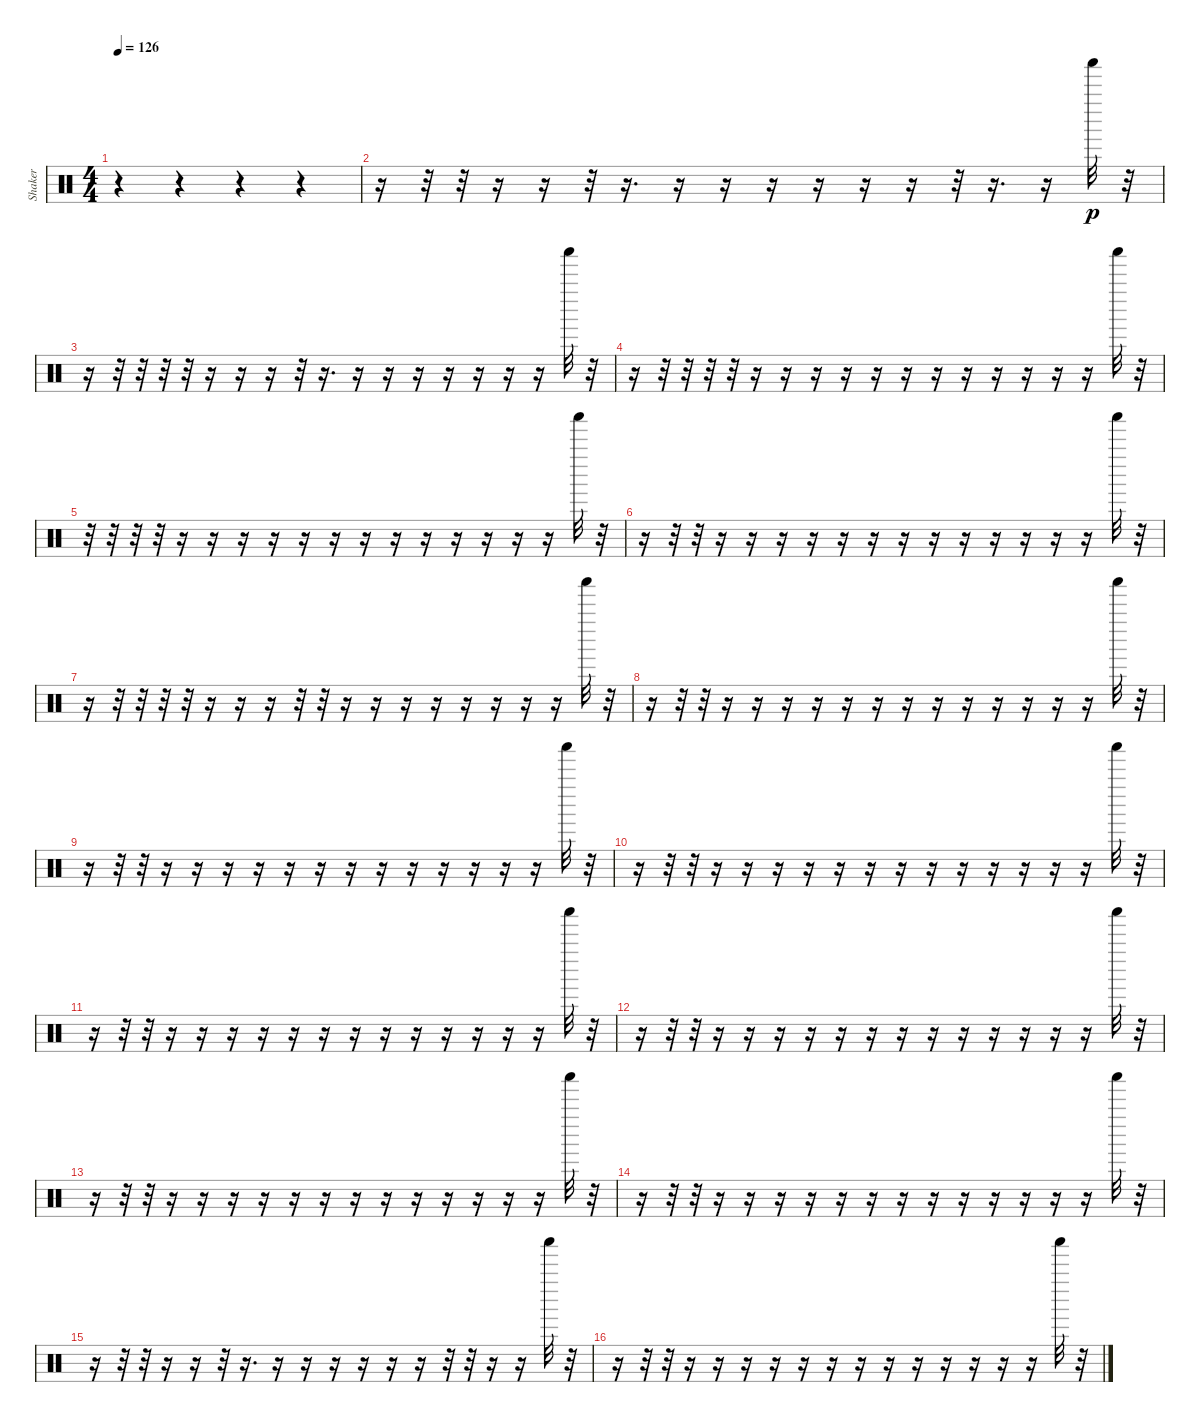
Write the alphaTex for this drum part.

\track ("Shaker" "Shaker") {instrument percussion}
\staff {score}
\articulation defaults
\ts (4 4)
\tempo 126
\clef neutral
\ks c
r.4{dy p} r.4 r.4 r.4 |
r.16 r.32 r.32 r.16 r.16 r.32 r.16{d} r.16 r.16 r.16 r.16 r.16 r.16 r.32 r.16{d} r.16 "Shaker (hit)".32 r.32 |
r.16 r.32 r.32 r.32 r.32 r.16 r.16 r.16 r.32 r.16{d} r.16 r.16 r.16 r.16 r.16 r.16 r.16 "Shaker (hit)".32 r.32 |
r.16 r.32 r.32 r.32 r.32 r.16 r.16 r.16 r.16 r.16 r.16 r.16 r.16 r.16 r.16 r.16 r.16 "Shaker (hit)".32 r.32 |
r.32 r.32 r.32 r.32 r.16 r.16 r.16 r.16 r.16 r.16 r.16 r.16 r.16 r.16 r.16 r.16 r.16 "Shaker (hit)".32 r.32 |
r.16 r.32 r.32 r.16 r.16 r.16 r.16 r.16 r.16 r.16 r.16 r.16 r.16 r.16 r.16 r.16 "Shaker (hit)".32 r.32 |
r.16 r.32 r.32 r.32 r.32 r.16 r.16 r.16 r.32 r.32 r.16 r.16 r.16 r.16 r.16 r.16 r.16 r.16 "Shaker (hit)".32 r.32 |
r.16 r.32 r.32 r.16 r.16 r.16 r.16 r.16 r.16 r.16 r.16 r.16 r.16 r.16 r.16 r.16 "Shaker (hit)".32 r.32 |
r.16 r.32 r.32 r.16 r.16 r.16 r.16 r.16 r.16 r.16 r.16 r.16 r.16 r.16 r.16 r.16 "Shaker (hit)".32 r.32 |
r.16 r.32 r.32 r.16 r.16 r.16 r.16 r.16 r.16 r.16 r.16 r.16 r.16 r.16 r.16 r.16 "Shaker (hit)".32 r.32 |
r.16 r.32 r.32 r.16 r.16 r.16 r.16 r.16 r.16 r.16 r.16 r.16 r.16 r.16 r.16 r.16 "Shaker (hit)".32 r.32 |
r.16 r.32 r.32 r.16 r.16 r.16 r.16 r.16 r.16 r.16 r.16 r.16 r.16 r.16 r.16 r.16 "Shaker (hit)".32 r.32 |
r.16 r.32 r.32 r.16 r.16 r.16 r.16 r.16 r.16 r.16 r.16 r.16 r.16 r.16 r.16 r.16 "Shaker (hit)".32 r.32 |
r.16 r.32 r.32 r.16 r.16 r.16 r.16 r.16 r.16 r.16 r.16 r.16 r.16 r.16 r.16 r.16 "Shaker (hit)".32 r.32 |
r.16 r.32 r.32 r.16 r.16 r.32 r.16{d} r.16 r.16 r.16 r.16 r.16 r.16 r.32 r.32 r.16 r.16 "Shaker (hit)".32 r.32 |
r.16 r.32 r.32 r.16 r.16 r.16 r.16 r.16 r.16 r.16 r.16 r.16 r.16 r.16 r.16 r.16 "Shaker (hit)".32 r.32
